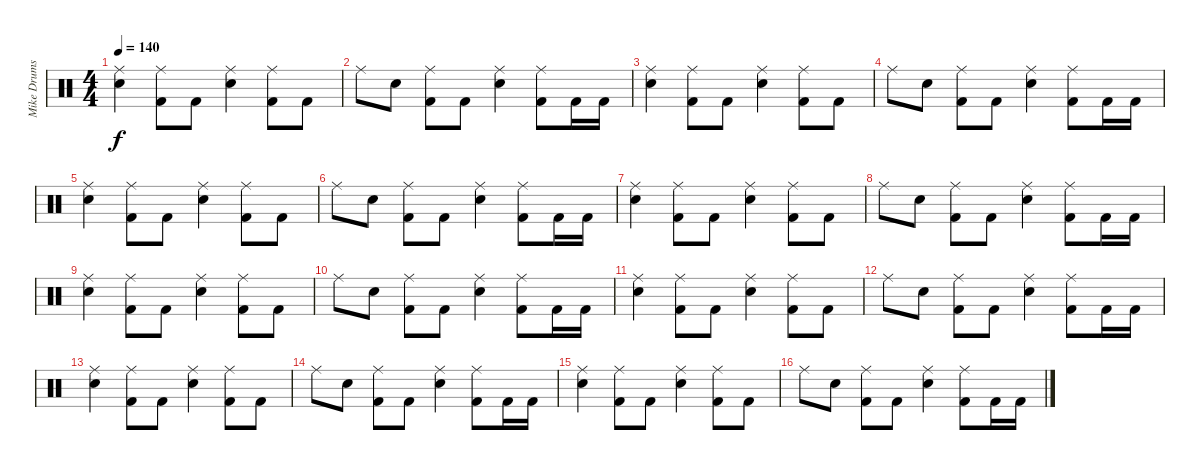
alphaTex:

\track ("Mike Drums" "Mike Drums") {instrument percussion}
\staff {score}
\articulation defaults
\ts (4 4)
\tempo 140
\clef neutral
\ks c
("Ride (middle)" "Electric Snare (hit)").4{dy f} ("Ride (middle)" "Kick (hit) 2").8 "Kick (hit) 2".8 ("Ride (middle)" "Electric Snare (hit)").4 ("Ride (middle)" "Kick (hit) 2").8 "Kick (hit) 2".8 |
"Ride (middle)".8 "Electric Snare (hit)".8 ("Ride (middle)" "Kick (hit) 2").8 "Kick (hit) 2".8 ("Ride (middle)" "Electric Snare (hit)").4 ("Ride (middle)" "Kick (hit) 2").8 "Kick (hit) 2".16 "Kick (hit) 2".16 |
("Ride (middle)" "Electric Snare (hit)").4 ("Ride (middle)" "Kick (hit) 2").8 "Kick (hit) 2".8 ("Ride (middle)" "Electric Snare (hit)").4 ("Ride (middle)" "Kick (hit) 2").8 "Kick (hit) 2".8 |
"Ride (middle)".8 "Electric Snare (hit)".8 ("Ride (middle)" "Kick (hit) 2").8 "Kick (hit) 2".8 ("Ride (middle)" "Electric Snare (hit)").4 ("Ride (middle)" "Kick (hit) 2").8 "Kick (hit) 2".16 "Kick (hit) 2".16 |
("Ride (middle)" "Electric Snare (hit)").4 ("Ride (middle)" "Kick (hit) 2").8 "Kick (hit) 2".8 ("Ride (middle)" "Electric Snare (hit)").4 ("Ride (middle)" "Kick (hit) 2").8 "Kick (hit) 2".8 |
"Ride (middle)".8 "Electric Snare (hit)".8 ("Ride (middle)" "Kick (hit) 2").8 "Kick (hit) 2".8 ("Ride (middle)" "Electric Snare (hit)").4 ("Ride (middle)" "Kick (hit) 2").8 "Kick (hit) 2".16 "Kick (hit) 2".16 |
("Ride (middle)" "Electric Snare (hit)").4 ("Ride (middle)" "Kick (hit) 2").8 "Kick (hit) 2".8 ("Ride (middle)" "Electric Snare (hit)").4 ("Ride (middle)" "Kick (hit) 2").8 "Kick (hit) 2".8 |
"Ride (middle)".8 "Electric Snare (hit)".8 ("Ride (middle)" "Kick (hit) 2").8 "Kick (hit) 2".8 ("Ride (middle)" "Electric Snare (hit)").4 ("Ride (middle)" "Kick (hit) 2").8 "Kick (hit) 2".16 "Kick (hit) 2".16 |
("Ride (middle)" "Electric Snare (hit)").4 ("Ride (middle)" "Kick (hit) 2").8 "Kick (hit) 2".8 ("Ride (middle)" "Electric Snare (hit)").4 ("Ride (middle)" "Kick (hit) 2").8 "Kick (hit) 2".8 |
"Ride (middle)".8 "Electric Snare (hit)".8 ("Ride (middle)" "Kick (hit) 2").8 "Kick (hit) 2".8 ("Ride (middle)" "Electric Snare (hit)").4 ("Ride (middle)" "Kick (hit) 2").8 "Kick (hit) 2".16 "Kick (hit) 2".16 |
("Ride (middle)" "Electric Snare (hit)").4 ("Ride (middle)" "Kick (hit) 2").8 "Kick (hit) 2".8 ("Ride (middle)" "Electric Snare (hit)").4 ("Ride (middle)" "Kick (hit) 2").8 "Kick (hit) 2".8 |
"Ride (middle)".8 "Electric Snare (hit)".8 ("Ride (middle)" "Kick (hit) 2").8 "Kick (hit) 2".8 ("Ride (middle)" "Electric Snare (hit)").4 ("Ride (middle)" "Kick (hit) 2").8 "Kick (hit) 2".16 "Kick (hit) 2".16 |
("Ride (middle)" "Electric Snare (hit)").4 ("Ride (middle)" "Kick (hit) 2").8 "Kick (hit) 2".8 ("Ride (middle)" "Electric Snare (hit)").4 ("Ride (middle)" "Kick (hit) 2").8 "Kick (hit) 2".8 |
"Ride (middle)".8 "Electric Snare (hit)".8 ("Ride (middle)" "Kick (hit) 2").8 "Kick (hit) 2".8 ("Ride (middle)" "Electric Snare (hit)").4 ("Ride (middle)" "Kick (hit) 2").8 "Kick (hit) 2".16 "Kick (hit) 2".16 |
("Ride (middle)" "Electric Snare (hit)").4 ("Ride (middle)" "Kick (hit) 2").8 "Kick (hit) 2".8 ("Ride (middle)" "Electric Snare (hit)").4 ("Ride (middle)" "Kick (hit) 2").8 "Kick (hit) 2".8 |
"Ride (middle)".8 "Electric Snare (hit)".8 ("Ride (middle)" "Kick (hit) 2").8 "Kick (hit) 2".8 ("Ride (middle)" "Electric Snare (hit)").4 ("Ride (middle)" "Kick (hit) 2").8 "Kick (hit) 2".16 "Kick (hit) 2".16
